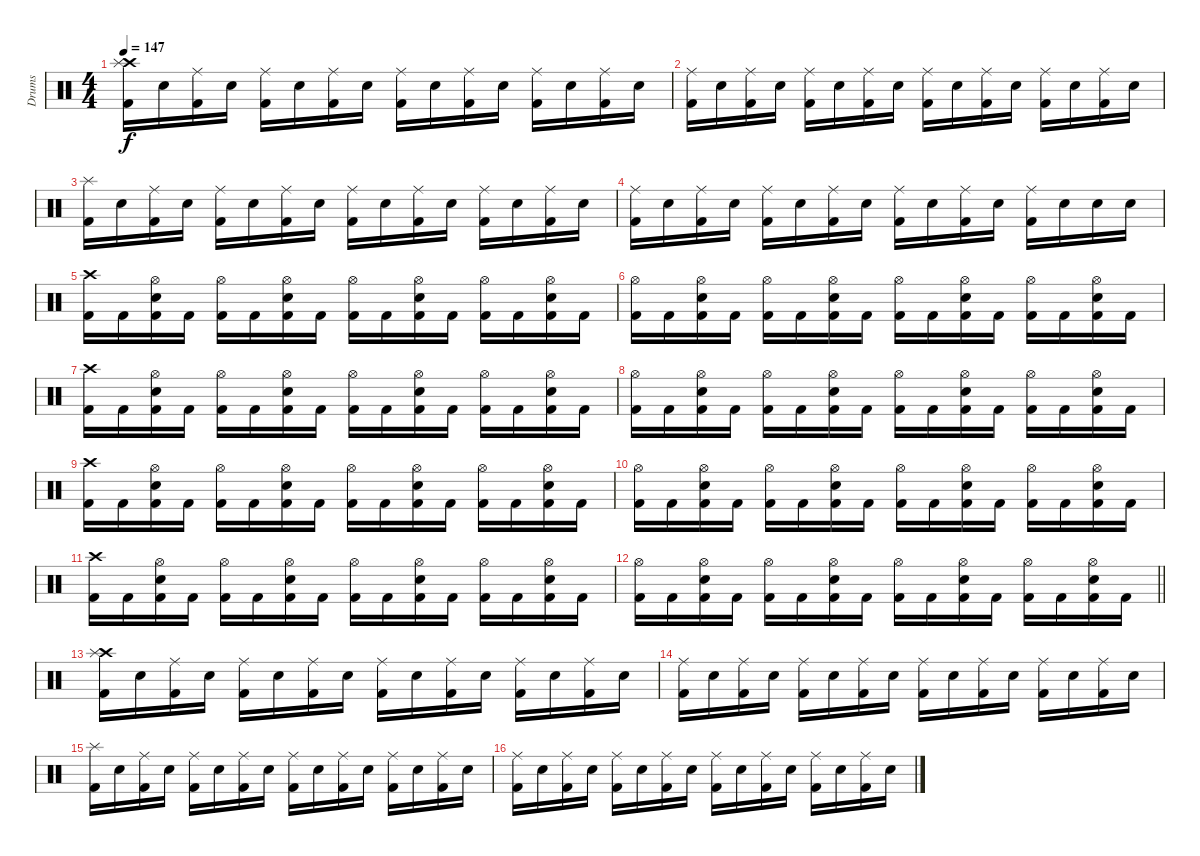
\track ("Drums" "Drums") {instrument percussion}
\staff {score}
\articulation defaults
\ts (4 4)
\tempo 147
\clef neutral
\ks c
("Crash high (hit)" "Splash (hit)" "Kick (hit) 2").16{dy f} "Electric Snare (hit)".16 ("Ride (middle)" "Kick (hit) 2").16 "Electric Snare (hit)".16 ("Ride (middle)" "Kick (hit) 2").16 "Electric Snare (hit)".16 ("Ride (middle)" "Kick (hit) 2").16 "Electric Snare (hit)".16 ("Ride (middle)" "Kick (hit) 2").16 "Electric Snare (hit)".16 ("Ride (middle)" "Kick (hit) 2").16 "Electric Snare (hit)".16 ("Ride (middle)" "Kick (hit) 2").16 "Electric Snare (hit)".16 ("Ride (middle)" "Kick (hit) 2").16 "Electric Snare (hit)".16 |
("Ride (middle)" "Kick (hit) 2").16 "Electric Snare (hit)".16 ("Ride (middle)" "Kick (hit) 2").16 "Electric Snare (hit)".16 ("Ride (middle)" "Kick (hit) 2").16 "Electric Snare (hit)".16 ("Ride (middle)" "Kick (hit) 2").16 "Electric Snare (hit)".16 ("Ride (middle)" "Kick (hit) 2").16 "Electric Snare (hit)".16 ("Ride (middle)" "Kick (hit) 2").16 "Electric Snare (hit)".16 ("Ride (middle)" "Kick (hit) 2").16 "Electric Snare (hit)".16 ("Ride (middle)" "Kick (hit) 2").16 "Electric Snare (hit)".16 |
("Splash (hit)" "Kick (hit) 2").16 "Electric Snare (hit)".16 ("Ride (middle)" "Kick (hit) 2").16 "Electric Snare (hit)".16 ("Ride (middle)" "Kick (hit) 2").16 "Electric Snare (hit)".16 ("Ride (middle)" "Kick (hit) 2").16 "Electric Snare (hit)".16 ("Ride (middle)" "Kick (hit) 2").16 "Electric Snare (hit)".16 ("Ride (middle)" "Kick (hit) 2").16 "Electric Snare (hit)".16 ("Ride (middle)" "Kick (hit) 2").16 "Electric Snare (hit)".16 ("Ride (middle)" "Kick (hit) 2").16 "Electric Snare (hit)".16 |
("Ride (middle)" "Kick (hit) 2").16 "Electric Snare (hit)".16 ("Ride (middle)" "Kick (hit) 2").16 "Electric Snare (hit)".16 ("Ride (middle)" "Kick (hit) 2").16 "Electric Snare (hit)".16 ("Ride (middle)" "Kick (hit) 2").16 "Electric Snare (hit)".16 ("Ride (middle)" "Kick (hit) 2").16 "Electric Snare (hit)".16 ("Ride (middle)" "Kick (hit) 2").16 "Electric Snare (hit)".16 ("Ride (middle)" "Kick (hit) 2").16 "Electric Snare (hit)".16 "Electric Snare (hit)".16 "Electric Snare (hit)".16 |
("Crash high (hit)" "Kick (hit) 2").16 "Kick (hit) 2".16 ("Hi-Hat (open)" "Electric Snare (hit)" "Kick (hit) 2").16 "Kick (hit) 2".16 ("Hi-Hat (open)" "Kick (hit) 2").16 "Kick (hit) 2".16 ("Hi-Hat (open)" "Electric Snare (hit)" "Kick (hit) 2").16 "Kick (hit) 2".16 ("Hi-Hat (open)" "Kick (hit) 2").16 "Kick (hit) 2".16 ("Hi-Hat (open)" "Electric Snare (hit)" "Kick (hit) 2").16 "Kick (hit) 2".16 ("Hi-Hat (open)" "Kick (hit) 2").16 "Kick (hit) 2".16 ("Hi-Hat (open)" "Electric Snare (hit)" "Kick (hit) 2").16 "Kick (hit) 2".16 |
("Hi-Hat (open)" "Kick (hit) 2").16 "Kick (hit) 2".16 ("Hi-Hat (open)" "Electric Snare (hit)" "Kick (hit) 2").16 "Kick (hit) 2".16 ("Hi-Hat (open)" "Kick (hit) 2").16 "Kick (hit) 2".16 ("Hi-Hat (open)" "Electric Snare (hit)" "Kick (hit) 2").16 "Kick (hit) 2".16 ("Hi-Hat (open)" "Kick (hit) 2").16 "Kick (hit) 2".16 ("Hi-Hat (open)" "Electric Snare (hit)" "Kick (hit) 2").16 "Kick (hit) 2".16 ("Hi-Hat (open)" "Kick (hit) 2").16 "Kick (hit) 2".16 ("Hi-Hat (open)" "Electric Snare (hit)" "Kick (hit) 2").16 "Kick (hit) 2".16 |
("Crash high (hit)" "Kick (hit) 2").16 "Kick (hit) 2".16 ("Hi-Hat (open)" "Electric Snare (hit)" "Kick (hit) 2").16 "Kick (hit) 2".16 ("Hi-Hat (open)" "Kick (hit) 2").16 "Kick (hit) 2".16 ("Hi-Hat (open)" "Electric Snare (hit)" "Kick (hit) 2").16 "Kick (hit) 2".16 ("Hi-Hat (open)" "Kick (hit) 2").16 "Kick (hit) 2".16 ("Hi-Hat (open)" "Electric Snare (hit)" "Kick (hit) 2").16 "Kick (hit) 2".16 ("Hi-Hat (open)" "Kick (hit) 2").16 "Kick (hit) 2".16 ("Hi-Hat (open)" "Electric Snare (hit)" "Kick (hit) 2").16 "Kick (hit) 2".16 |
("Hi-Hat (open)" "Kick (hit) 2").16 "Kick (hit) 2".16 ("Hi-Hat (open)" "Electric Snare (hit)" "Kick (hit) 2").16 "Kick (hit) 2".16 ("Hi-Hat (open)" "Kick (hit) 2").16 "Kick (hit) 2".16 ("Hi-Hat (open)" "Electric Snare (hit)" "Kick (hit) 2").16 "Kick (hit) 2".16 ("Hi-Hat (open)" "Kick (hit) 2").16 "Kick (hit) 2".16 ("Hi-Hat (open)" "Electric Snare (hit)" "Kick (hit) 2").16 "Kick (hit) 2".16 ("Hi-Hat (open)" "Kick (hit) 2").16 "Kick (hit) 2".16 ("Hi-Hat (open)" "Electric Snare (hit)" "Kick (hit) 2").16 "Kick (hit) 2".16 |
("Crash high (hit)" "Kick (hit) 2").16 "Kick (hit) 2".16 ("Hi-Hat (open)" "Electric Snare (hit)" "Kick (hit) 2").16 "Kick (hit) 2".16 ("Hi-Hat (open)" "Kick (hit) 2").16 "Kick (hit) 2".16 ("Hi-Hat (open)" "Electric Snare (hit)" "Kick (hit) 2").16 "Kick (hit) 2".16 ("Hi-Hat (open)" "Kick (hit) 2").16 "Kick (hit) 2".16 ("Hi-Hat (open)" "Electric Snare (hit)" "Kick (hit) 2").16 "Kick (hit) 2".16 ("Hi-Hat (open)" "Kick (hit) 2").16 "Kick (hit) 2".16 ("Hi-Hat (open)" "Electric Snare (hit)" "Kick (hit) 2").16 "Kick (hit) 2".16 |
("Hi-Hat (open)" "Kick (hit) 2").16 "Kick (hit) 2".16 ("Hi-Hat (open)" "Electric Snare (hit)" "Kick (hit) 2").16 "Kick (hit) 2".16 ("Hi-Hat (open)" "Kick (hit) 2").16 "Kick (hit) 2".16 ("Hi-Hat (open)" "Electric Snare (hit)" "Kick (hit) 2").16 "Kick (hit) 2".16 ("Hi-Hat (open)" "Kick (hit) 2").16 "Kick (hit) 2".16 ("Hi-Hat (open)" "Electric Snare (hit)" "Kick (hit) 2").16 "Kick (hit) 2".16 ("Hi-Hat (open)" "Kick (hit) 2").16 "Kick (hit) 2".16 ("Hi-Hat (open)" "Electric Snare (hit)" "Kick (hit) 2").16 "Kick (hit) 2".16 |
("Crash high (hit)" "Kick (hit) 2").16 "Kick (hit) 2".16 ("Hi-Hat (open)" "Electric Snare (hit)" "Kick (hit) 2").16 "Kick (hit) 2".16 ("Hi-Hat (open)" "Kick (hit) 2").16 "Kick (hit) 2".16 ("Hi-Hat (open)" "Electric Snare (hit)" "Kick (hit) 2").16 "Kick (hit) 2".16 ("Hi-Hat (open)" "Kick (hit) 2").16 "Kick (hit) 2".16 ("Hi-Hat (open)" "Electric Snare (hit)" "Kick (hit) 2").16 "Kick (hit) 2".16 ("Hi-Hat (open)" "Kick (hit) 2").16 "Kick (hit) 2".16 ("Hi-Hat (open)" "Electric Snare (hit)" "Kick (hit) 2").16 "Kick (hit) 2".16 |
\barLineRight lightlight
("Hi-Hat (open)" "Kick (hit) 2").16 "Kick (hit) 2".16 ("Hi-Hat (open)" "Electric Snare (hit)" "Kick (hit) 2").16 "Kick (hit) 2".16 ("Hi-Hat (open)" "Kick (hit) 2").16 "Kick (hit) 2".16 ("Hi-Hat (open)" "Electric Snare (hit)" "Kick (hit) 2").16 "Kick (hit) 2".16 ("Hi-Hat (open)" "Kick (hit) 2").16 "Kick (hit) 2".16 ("Hi-Hat (open)" "Electric Snare (hit)" "Kick (hit) 2").16 "Kick (hit) 2".16 ("Hi-Hat (open)" "Kick (hit) 2").16 "Kick (hit) 2".16 ("Hi-Hat (open)" "Electric Snare (hit)" "Kick (hit) 2").16 "Kick (hit) 2".16 |
\section ("" "")
("Crash high (hit)" "Splash (hit)" "Kick (hit) 2").16 "Electric Snare (hit)".16 ("Ride (middle)" "Kick (hit) 2").16 "Electric Snare (hit)".16 ("Ride (middle)" "Kick (hit) 2").16 "Electric Snare (hit)".16 ("Ride (middle)" "Kick (hit) 2").16 "Electric Snare (hit)".16 ("Ride (middle)" "Kick (hit) 2").16 "Electric Snare (hit)".16 ("Ride (middle)" "Kick (hit) 2").16 "Electric Snare (hit)".16 ("Ride (middle)" "Kick (hit) 2").16 "Electric Snare (hit)".16 ("Ride (middle)" "Kick (hit) 2").16 "Electric Snare (hit)".16 |
("Ride (middle)" "Kick (hit) 2").16 "Electric Snare (hit)".16 ("Ride (middle)" "Kick (hit) 2").16 "Electric Snare (hit)".16 ("Ride (middle)" "Kick (hit) 2").16 "Electric Snare (hit)".16 ("Ride (middle)" "Kick (hit) 2").16 "Electric Snare (hit)".16 ("Ride (middle)" "Kick (hit) 2").16 "Electric Snare (hit)".16 ("Ride (middle)" "Kick (hit) 2").16 "Electric Snare (hit)".16 ("Ride (middle)" "Kick (hit) 2").16 "Electric Snare (hit)".16 ("Ride (middle)" "Kick (hit) 2").16 "Electric Snare (hit)".16 |
("Splash (hit)" "Kick (hit) 2").16 "Electric Snare (hit)".16 ("Ride (middle)" "Kick (hit) 2").16 "Electric Snare (hit)".16 ("Ride (middle)" "Kick (hit) 2").16 "Electric Snare (hit)".16 ("Ride (middle)" "Kick (hit) 2").16 "Electric Snare (hit)".16 ("Ride (middle)" "Kick (hit) 2").16 "Electric Snare (hit)".16 ("Ride (middle)" "Kick (hit) 2").16 "Electric Snare (hit)".16 ("Ride (middle)" "Kick (hit) 2").16 "Electric Snare (hit)".16 ("Ride (middle)" "Kick (hit) 2").16 "Electric Snare (hit)".16 |
("Ride (middle)" "Kick (hit) 2").16 "Electric Snare (hit)".16 ("Ride (middle)" "Kick (hit) 2").16 "Electric Snare (hit)".16 ("Ride (middle)" "Kick (hit) 2").16 "Electric Snare (hit)".16 ("Ride (middle)" "Kick (hit) 2").16 "Electric Snare (hit)".16 ("Ride (middle)" "Kick (hit) 2").16 "Electric Snare (hit)".16 ("Ride (middle)" "Kick (hit) 2").16 "Electric Snare (hit)".16 ("Ride (middle)" "Kick (hit) 2").16 "Electric Snare (hit)".16 ("Ride (middle)" "Kick (hit) 2").16 "Electric Snare (hit)".16
